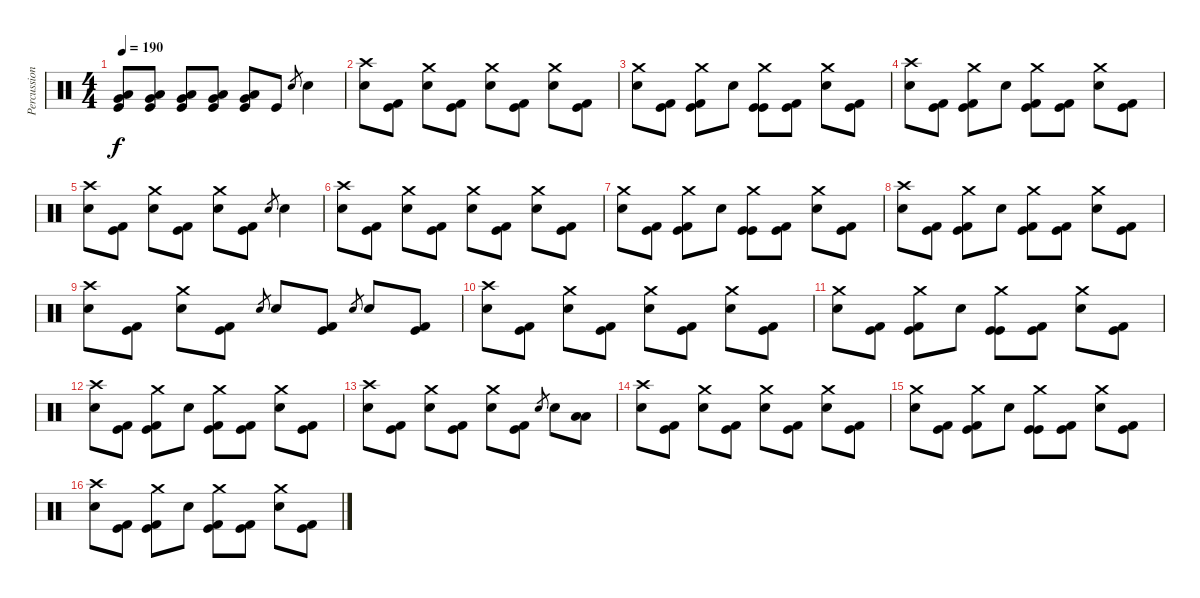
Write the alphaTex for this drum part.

\track ("Percussions" "Percussion") {instrument percussion}
\staff {score}
\articulation defaults
\ts (4 4)
\tempo 190
\clef neutral
\ks c
("Very Low Tom (hit)" "Low Floor Tom (hit)" "Kick (hit)").8{dy f} ("Very Low Tom (hit)" "Low Floor Tom (hit)" "Kick (hit)").8 ("Very Low Tom (hit)" "Low Floor Tom (hit)" "Kick (hit)").8 ("Very Low Tom (hit)" "Low Floor Tom (hit)" "Kick (hit)").8 ("Very Low Tom (hit)" "Low Floor Tom (hit)" "Kick (hit)").8 "Kick (hit)".8 "Electric Snare (hit)".8{gr} "Electric Snare (hit)".4 |
("Crash high (hit)" "Electric Snare (hit)").8 ("Kick (hit)" "Kick (hit) 2").8 ("Crash medium (hit)" "Electric Snare (hit)").8 ("Kick (hit)" "Kick (hit) 2").8 ("Crash medium (hit)" "Electric Snare (hit)").8 ("Kick (hit)" "Kick (hit) 2").8 ("Crash medium (hit)" "Electric Snare (hit)").8 ("Kick (hit)" "Kick (hit) 2").8 |
("Crash medium (hit)" "Electric Snare (hit)").8 ("Kick (hit)" "Kick (hit) 2").8 ("Crash medium (hit)" "Kick (hit)" "Kick (hit) 2").8 "Electric Snare (hit)".8 ("Crash medium (hit)" "Kick (hit)" "Kick (hit)").8 ("Kick (hit)" "Kick (hit) 2").8 ("Crash medium (hit)" "Electric Snare (hit)").8 ("Kick (hit)" "Kick (hit) 2").8 |
("Crash high (hit)" "Electric Snare (hit)").8 ("Kick (hit)" "Kick (hit) 2").8 ("Crash medium (hit)" "Kick (hit)" "Kick (hit) 2").8 "Electric Snare (hit)".8 ("Crash medium (hit)" "Kick (hit)" "Kick (hit) 2").8 ("Kick (hit)" "Kick (hit) 2").8 ("Crash medium (hit)" "Electric Snare (hit)").8 ("Kick (hit)" "Kick (hit) 2").8 |
("Crash high (hit)" "Electric Snare (hit)").8 ("Kick (hit)" "Kick (hit) 2").8 ("Crash medium (hit)" "Electric Snare (hit)").8 ("Kick (hit)" "Kick (hit) 2").8 ("Crash medium (hit)" "Electric Snare (hit)").8 ("Kick (hit)" "Kick (hit) 2").8 "Electric Snare (hit)".8{gr} "Electric Snare (hit)".4 |
("Crash high (hit)" "Electric Snare (hit)").8 ("Kick (hit)" "Kick (hit) 2").8 ("Crash medium (hit)" "Electric Snare (hit)").8 ("Kick (hit)" "Kick (hit) 2").8 ("Crash medium (hit)" "Electric Snare (hit)").8 ("Kick (hit)" "Kick (hit) 2").8 ("Crash medium (hit)" "Electric Snare (hit)").8 ("Kick (hit)" "Kick (hit) 2").8 |
("Crash medium (hit)" "Electric Snare (hit)").8 ("Kick (hit)" "Kick (hit) 2").8 ("Crash medium (hit)" "Kick (hit)" "Kick (hit) 2").8 "Electric Snare (hit)".8 ("Crash medium (hit)" "Kick (hit)" "Kick (hit)").8 ("Kick (hit)" "Kick (hit) 2").8 ("Crash medium (hit)" "Electric Snare (hit)").8 ("Kick (hit)" "Kick (hit) 2").8 |
("Crash high (hit)" "Electric Snare (hit)").8 ("Kick (hit)" "Kick (hit) 2").8 ("Crash medium (hit)" "Kick (hit)" "Kick (hit) 2").8 "Electric Snare (hit)".8 ("Crash medium (hit)" "Kick (hit)" "Kick (hit) 2").8 ("Kick (hit)" "Kick (hit) 2").8 ("Crash medium (hit)" "Electric Snare (hit)").8 ("Kick (hit)" "Kick (hit) 2").8 |
("Crash high (hit)" "Electric Snare (hit)").8 ("Kick (hit)" "Kick (hit) 2").8 ("Crash medium (hit)" "Electric Snare (hit)").8 ("Kick (hit)" "Kick (hit) 2").8 "Electric Snare (hit)".8{gr} "Electric Snare (hit)".8 ("Kick (hit)" "Kick (hit) 2").8 "Electric Snare (hit)".8{gr} "Electric Snare (hit)".8 ("Kick (hit)" "Kick (hit) 2").8 |
("Crash high (hit)" "Electric Snare (hit)").8 ("Kick (hit)" "Kick (hit) 2").8 ("Crash medium (hit)" "Electric Snare (hit)").8 ("Kick (hit)" "Kick (hit) 2").8 ("Crash medium (hit)" "Electric Snare (hit)").8 ("Kick (hit)" "Kick (hit) 2").8 ("Crash medium (hit)" "Electric Snare (hit)").8 ("Kick (hit)" "Kick (hit) 2").8 |
("Crash medium (hit)" "Electric Snare (hit)").8 ("Kick (hit)" "Kick (hit) 2").8 ("Crash medium (hit)" "Kick (hit)" "Kick (hit) 2").8 "Electric Snare (hit)".8 ("Crash medium (hit)" "Kick (hit)" "Kick (hit)").8 ("Kick (hit)" "Kick (hit) 2").8 ("Crash medium (hit)" "Electric Snare (hit)").8 ("Kick (hit)" "Kick (hit) 2").8 |
("Crash high (hit)" "Electric Snare (hit)").8 ("Kick (hit)" "Kick (hit) 2").8 ("Crash medium (hit)" "Kick (hit)" "Kick (hit) 2").8 "Electric Snare (hit)".8 ("Crash medium (hit)" "Kick (hit)" "Kick (hit) 2").8 ("Kick (hit)" "Kick (hit) 2").8 ("Crash medium (hit)" "Electric Snare (hit)").8 ("Kick (hit)" "Kick (hit) 2").8 |
("Crash high (hit)" "Electric Snare (hit)").8 ("Kick (hit)" "Kick (hit) 2").8 ("Crash medium (hit)" "Electric Snare (hit)").8 ("Kick (hit)" "Kick (hit) 2").8 ("Crash medium (hit)" "Electric Snare (hit)").8 ("Kick (hit)" "Kick (hit) 2").8 "Electric Snare (hit)".8{gr} "Electric Snare (hit)".8 ("Low Floor Tom (hit)" "Low Floor Tom (hit)").8 |
("Crash high (hit)" "Electric Snare (hit)").8 ("Kick (hit)" "Kick (hit) 2").8 ("Crash medium (hit)" "Electric Snare (hit)").8 ("Kick (hit)" "Kick (hit) 2").8 ("Crash medium (hit)" "Electric Snare (hit)").8 ("Kick (hit)" "Kick (hit) 2").8 ("Crash medium (hit)" "Electric Snare (hit)").8 ("Kick (hit)" "Kick (hit) 2").8 |
("Crash medium (hit)" "Electric Snare (hit)").8 ("Kick (hit)" "Kick (hit) 2").8 ("Crash medium (hit)" "Kick (hit)" "Kick (hit) 2").8 "Electric Snare (hit)".8 ("Crash medium (hit)" "Kick (hit)" "Kick (hit)").8 ("Kick (hit)" "Kick (hit) 2").8 ("Crash medium (hit)" "Electric Snare (hit)").8 ("Kick (hit)" "Kick (hit) 2").8 |
("Crash high (hit)" "Electric Snare (hit)").8 ("Kick (hit)" "Kick (hit) 2").8 ("Crash medium (hit)" "Kick (hit)" "Kick (hit) 2").8 "Electric Snare (hit)".8 ("Crash medium (hit)" "Kick (hit)" "Kick (hit) 2").8 ("Kick (hit)" "Kick (hit) 2").8 ("Crash medium (hit)" "Electric Snare (hit)").8 ("Kick (hit)" "Kick (hit) 2").8
